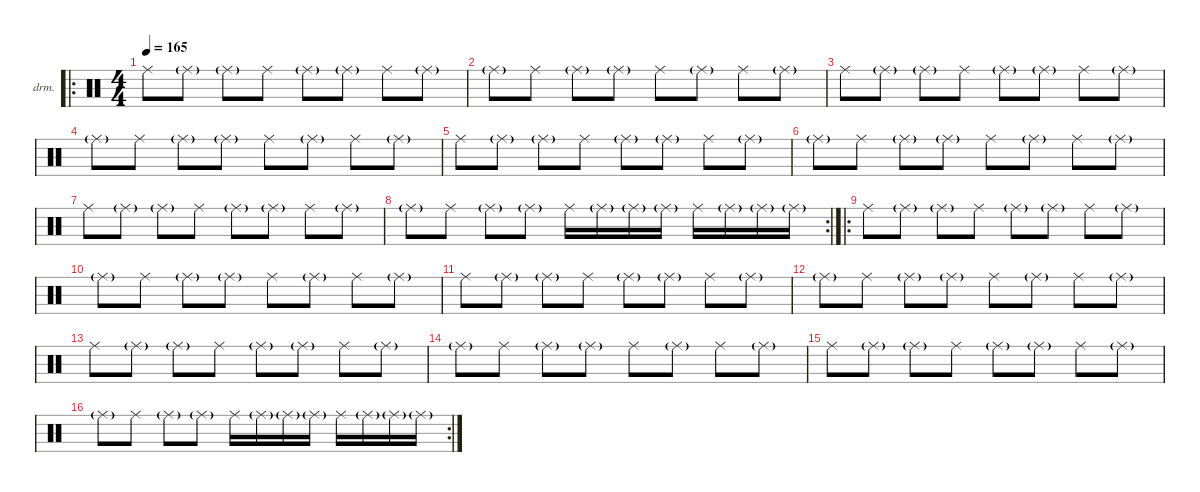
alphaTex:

\defaultSystemsLayout 4
\hideDynamics
\bracketExtendMode nobrackets
\firstSystemTrackNameOrientation horizontal
\otherSystemsTrackNameOrientation horizontal
\track ("Marty Chapman (Drums)" "drm.") {instrument percussion}
\staff {score}
\articulation defaults
\ro
\ts (4 4)
\tempo 165
\clef neutral
\ks c "Ride (middle)".8{dy f beam Down} "Ride (middle)"{g}.8{beam Down} "Ride (middle)"{g}.8{beam Down} "Ride (middle)".8{beam Down} "Ride (middle)"{g}.8{beam Down} "Ride (middle)"{g}.8{beam Down} "Ride (middle)".8{beam Down} "Ride (middle)"{g}.8{beam Down}
|
"Ride (middle)"{g}.8{beam Down} "Ride (middle)".8{beam Down} "Ride (middle)"{g}.8{beam Down} "Ride (middle)"{g}.8{beam Down} "Ride (middle)".8{beam Down} "Ride (middle)"{g}.8{beam Down} "Ride (middle)".8{beam Down} "Ride (middle)"{g}.8{beam Down} |
"Ride (middle)".8{beam Down} "Ride (middle)"{g}.8{beam Down} "Ride (middle)"{g}.8{beam Down} "Ride (middle)".8{beam Down} "Ride (middle)"{g}.8{beam Down} "Ride (middle)"{g}.8{beam Down} "Ride (middle)".8{beam Down} "Ride (middle)"{g}.8{beam Down} |
"Ride (middle)"{g}.8{beam Down} "Ride (middle)".8{beam Down} "Ride (middle)"{g}.8{beam Down} "Ride (middle)"{g}.8{beam Down} "Ride (middle)".8{beam Down} "Ride (middle)"{g}.8{beam Down} "Ride (middle)".8{beam Down} "Ride (middle)"{g}.8{beam Down} |
"Ride (middle)".8{beam Down} "Ride (middle)"{g}.8{beam Down} "Ride (middle)"{g}.8{beam Down} "Ride (middle)".8{beam Down} "Ride (middle)"{g}.8{beam Down} "Ride (middle)"{g}.8{beam Down} "Ride (middle)".8{beam Down} "Ride (middle)"{g}.8{beam Down} |
"Ride (middle)"{g}.8{beam Down} "Ride (middle)".8{beam Down} "Ride (middle)"{g}.8{beam Down} "Ride (middle)"{g}.8{beam Down} "Ride (middle)".8{beam Down} "Ride (middle)"{g}.8{beam Down} "Ride (middle)".8{beam Down} "Ride (middle)"{g}.8{beam Down} |
"Ride (middle)".8{beam Down} "Ride (middle)"{g}.8{beam Down} "Ride (middle)"{g}.8{beam Down} "Ride (middle)".8{beam Down} "Ride (middle)"{g}.8{beam Down} "Ride (middle)"{g}.8{beam Down} "Ride (middle)".8{beam Down} "Ride (middle)"{g}.8{beam Down} |
\rc 2 "Ride (middle)"{g}.8{beam Down} "Ride (middle)".8{beam Down} "Ride (middle)"{g}.8{beam Down} "Ride (middle)"{g}.8{beam Down} "Ride (middle)".16{beam Down} "Ride (middle)"{g}.16{beam Down} "Ride (middle)"{g}.16{beam Down} "Ride (middle)"{g}.16{beam Down} "Ride (middle)".16{beam Down} "Ride (middle)"{g}.16{beam Down} "Ride (middle)"{g}.16{beam Down} "Ride (middle)"{g}.16{beam Down}
|
\ro "Ride (middle)".8{beam Down} "Ride (middle)"{g}.8{beam Down} "Ride (middle)"{g}.8{beam Down} "Ride (middle)".8{beam Down} "Ride (middle)"{g}.8{beam Down} "Ride (middle)"{g}.8{beam Down} "Ride (middle)".8{beam Down} "Ride (middle)"{g}.8{beam Down}
|
"Ride (middle)"{g}.8{beam Down} "Ride (middle)".8{beam Down} "Ride (middle)"{g}.8{beam Down} "Ride (middle)"{g}.8{beam Down} "Ride (middle)".8{beam Down} "Ride (middle)"{g}.8{beam Down} "Ride (middle)".8{beam Down} "Ride (middle)"{g}.8{beam Down} |
"Ride (middle)".8{beam Down} "Ride (middle)"{g}.8{beam Down} "Ride (middle)"{g}.8{beam Down} "Ride (middle)".8{beam Down} "Ride (middle)"{g}.8{beam Down} "Ride (middle)"{g}.8{beam Down} "Ride (middle)".8{beam Down} "Ride (middle)"{g}.8{beam Down} |
"Ride (middle)"{g}.8{beam Down} "Ride (middle)".8{beam Down} "Ride (middle)"{g}.8{beam Down} "Ride (middle)"{g}.8{beam Down} "Ride (middle)".8{beam Down} "Ride (middle)"{g}.8{beam Down} "Ride (middle)".8{beam Down} "Ride (middle)"{g}.8{beam Down} |
"Ride (middle)".8{beam Down} "Ride (middle)"{g}.8{beam Down} "Ride (middle)"{g}.8{beam Down} "Ride (middle)".8{beam Down} "Ride (middle)"{g}.8{beam Down} "Ride (middle)"{g}.8{beam Down} "Ride (middle)".8{beam Down} "Ride (middle)"{g}.8{beam Down} |
"Ride (middle)"{g}.8{beam Down} "Ride (middle)".8{beam Down} "Ride (middle)"{g}.8{beam Down} "Ride (middle)"{g}.8{beam Down} "Ride (middle)".8{beam Down} "Ride (middle)"{g}.8{beam Down} "Ride (middle)".8{beam Down} "Ride (middle)"{g}.8{beam Down} |
"Ride (middle)".8{beam Down} "Ride (middle)"{g}.8{beam Down} "Ride (middle)"{g}.8{beam Down} "Ride (middle)".8{beam Down} "Ride (middle)"{g}.8{beam Down} "Ride (middle)"{g}.8{beam Down} "Ride (middle)".8{beam Down} "Ride (middle)"{g}.8{beam Down} |
\rc 2 "Ride (middle)"{g}.8{beam Down} "Ride (middle)".8{beam Down} "Ride (middle)"{g}.8{beam Down} "Ride (middle)"{g}.8{beam Down} "Ride (middle)".16{beam Down} "Ride (middle)"{g}.16{beam Down} "Ride (middle)"{g}.16{beam Down} "Ride (middle)"{g}.16{beam Down} "Ride (middle)".16{beam Down} "Ride (middle)"{g}.16{beam Down} "Ride (middle)"{g}.16{beam Down} "Ride (middle)"{g}.16{beam Down}
